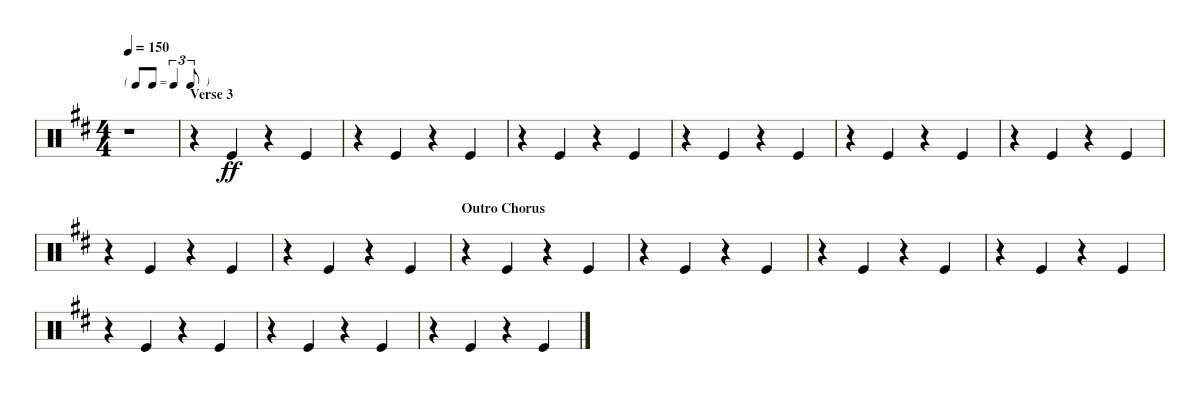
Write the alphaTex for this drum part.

\bracketExtendMode nobrackets
\singleTrackTrackNamePolicy hidden
\multiTrackTrackNamePolicy hidden
\firstSystemTrackNameMode fullname
\firstSystemTrackNameOrientation horizontal
\otherSystemsTrackNameOrientation horizontal
\defaultBarNumberDisplay Hide
\track ("Hand Clap" "H-Clap") {instrument percussion}
\staff {score}
\articulation defaults
\ts (4 4)
\tf triplet8th
\tempo 150
\clef neutral
\ks d
r.1{dy ff} |
\section ("" "Verse 3")
r.4 "Kick (hit)".4 r.4 "Kick (hit)".4 |
r.4 "Kick (hit)".4 r.4 "Kick (hit)".4 |
r.4 "Kick (hit)".4 r.4 "Kick (hit)".4 |
r.4 "Kick (hit)".4 r.4 "Kick (hit)".4 |
r.4 "Kick (hit)".4 r.4 "Kick (hit)".4 |
r.4 "Kick (hit)".4 r.4 "Kick (hit)".4 |
r.4 "Kick (hit)".4 r.4 "Kick (hit)".4 |
\scale
0.615385 r.4 "Kick (hit)".4 r.4 "Kick (hit)".4 |
\section ("" "Outro Chorus")
\scale
0.384615 r.4 "Kick (hit)".4 r.4 "Kick (hit)".4 |
r.4 "Kick (hit)".4 r.4 "Kick (hit)".4 |
r.4 "Kick (hit)".4 r.4 "Kick (hit)".4 |
r.4 "Kick (hit)".4 r.4 "Kick (hit)".4 |
r.4 "Kick (hit)".4 r.4 "Kick (hit)".4 |
r.4 "Kick (hit)".4 r.4 "Kick (hit)".4 |
r.4 "Kick (hit)".4 r.4 "Kick (hit)".4
